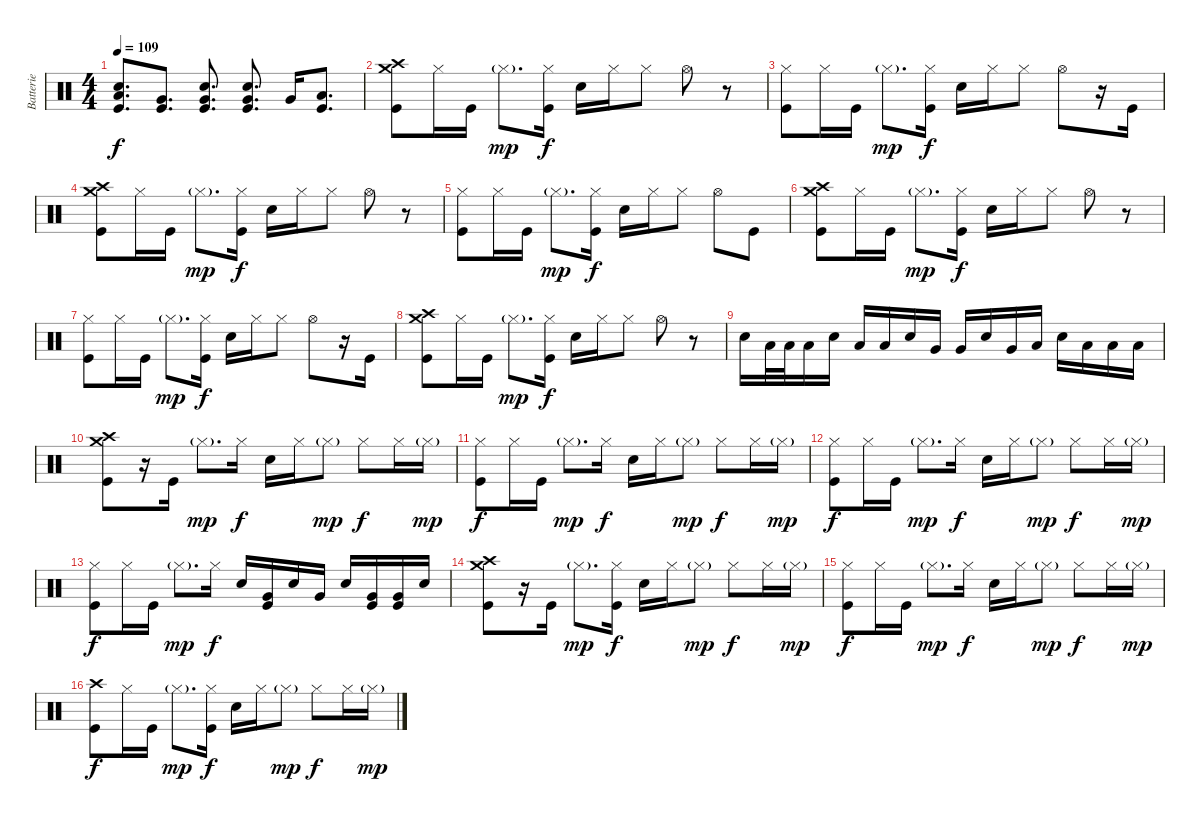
\track ("Batterie" "Batterie") {instrument percussion}
\staff {score}
\articulation defaults
\ts (4 4)
\tempo 109
\clef neutral
\ks c
("Electric Snare (hit)" "Low Tom (hit)" "Kick (hit)").8{d dy f} ("Very Low Tom (hit)" "Kick (hit)").8{d} ("Electric Snare (hit)" "Very Low Tom (hit)" "Kick (hit)").8{d} ("Electric Snare (hit)" "Very Low Tom (hit)" "Kick (hit)").8{d} "Very Low Tom (hit)".16 ("Low Floor Tom (hit)" "Kick (hit)").8{d} |
("Crash high (hit)" "Crash medium (hit)" "Kick (hit)").8 "Hi-Hat (closed)".16 "Kick (hit)".16 "Hi-Hat (closed)"{g}.8{d dy mp} ("Hi-Hat (closed)" "Kick (hit)").16{dy f} "Electric Snare (hit)".16 "Hi-Hat (closed)".16 "Hi-Hat (closed)".8 "Hi-Hat (open)".8 r.8 |
("Hi-Hat (closed)" "Kick (hit)").8 "Hi-Hat (closed)".16 "Kick (hit)".16 "Hi-Hat (closed)"{g}.8{d dy mp} ("Hi-Hat (closed)" "Kick (hit)").16{dy f} "Electric Snare (hit)".16 "Hi-Hat (closed)".16 "Hi-Hat (closed)".8 "Hi-Hat (open)".8 r.16 "Kick (hit)".16 |
("Crash high (hit)" "Crash medium (hit)" "Kick (hit)").8 "Hi-Hat (closed)".16 "Kick (hit)".16 "Hi-Hat (closed)"{g}.8{d dy mp} ("Hi-Hat (closed)" "Kick (hit)").16{dy f} "Electric Snare (hit)".16 "Hi-Hat (closed)".16 "Hi-Hat (closed)".8 "Hi-Hat (open)".8 r.8 |
("Hi-Hat (closed)" "Kick (hit)").8 "Hi-Hat (closed)".16 "Kick (hit)".16 "Hi-Hat (closed)"{g}.8{d dy mp} ("Hi-Hat (closed)" "Kick (hit)").16{dy f} "Electric Snare (hit)".16 "Hi-Hat (closed)".16 "Hi-Hat (closed)".8 "Hi-Hat (open)".8 "Kick (hit)".8 |
("Crash high (hit)" "Crash medium (hit)" "Kick (hit)").8 "Hi-Hat (closed)".16 "Kick (hit)".16 "Hi-Hat (closed)"{g}.8{d dy mp} ("Hi-Hat (closed)" "Kick (hit)").16{dy f} "Electric Snare (hit)".16 "Hi-Hat (closed)".16 "Hi-Hat (closed)".8 "Hi-Hat (open)".8 r.8 |
("Hi-Hat (closed)" "Kick (hit)").8 "Hi-Hat (closed)".16 "Kick (hit)".16 "Hi-Hat (closed)"{g}.8{d dy mp} ("Hi-Hat (closed)" "Kick (hit)").16{dy f} "Electric Snare (hit)".16 "Hi-Hat (closed)".16 "Hi-Hat (closed)".8 "Hi-Hat (open)".8 r.16 "Kick (hit)".16 |
("Crash high (hit)" "Crash medium (hit)" "Kick (hit)").8 "Hi-Hat (closed)".16 "Kick (hit)".16 "Hi-Hat (closed)"{g}.8{d dy mp} ("Hi-Hat (closed)" "Kick (hit)").16{dy f} "Electric Snare (hit)".16 "Hi-Hat (closed)".16 "Hi-Hat (closed)".8 "Hi-Hat (open)".8 r.8 |
"Electric Snare (hit)".16 "Low Tom (hit)".32 "Low Tom (hit)".32 "Low Tom (hit)".16 "Electric Snare (hit)".16 "Low Tom (hit)".16 "Low Tom (hit)".16 "Electric Snare (hit)".16 "Very Low Tom (hit)".16 "Very Low Tom (hit)".16 "Electric Snare (hit)".16 "Very Low Tom (hit)".16 "Low Floor Tom (hit)".16 "Electric Snare (hit)".16 "Low Floor Tom (hit)".16 "Low Floor Tom (hit)".16 "Low Floor Tom (hit)".16 |
("Crash high (hit)" "Crash medium (hit)" "Kick (hit)").8 r.16 "Kick (hit)".16 "Hi-Hat (closed)"{g}.8{d dy mp} "Hi-Hat (closed)".16{dy f} "Electric Snare (hit)".16 "Hi-Hat (closed)".16 "Hi-Hat (closed)"{g}.8{dy mp} "Hi-Hat (closed)".8{dy f} "Hi-Hat (closed)".16 "Hi-Hat (closed)"{g}.16{dy mp} |
("Hi-Hat (closed)" "Kick (hit)").8{dy f} "Hi-Hat (closed)".16 "Kick (hit)".16 "Hi-Hat (closed)"{g}.8{d dy mp} "Hi-Hat (closed)".16{dy f} "Electric Snare (hit)".16 "Hi-Hat (closed)".16 "Hi-Hat (closed)"{g}.8{dy mp} "Hi-Hat (closed)".8{dy f} "Hi-Hat (closed)".16 "Hi-Hat (closed)"{g}.16{dy mp} |
("Hi-Hat (closed)" "Kick (hit)").8{dy f} "Hi-Hat (closed)".16 "Kick (hit)".16 "Hi-Hat (closed)"{g}.8{d dy mp} "Hi-Hat (closed)".16{dy f} "Electric Snare (hit)".16 "Hi-Hat (closed)".16 "Hi-Hat (closed)"{g}.8{dy mp} "Hi-Hat (closed)".8{dy f} "Hi-Hat (closed)".16 "Hi-Hat (closed)"{g}.16{dy mp} |
("Hi-Hat (closed)" "Kick (hit)").8{dy f} "Hi-Hat (closed)".16 "Kick (hit)".16 "Hi-Hat (closed)"{g}.8{d dy mp} "Hi-Hat (closed)".16{dy f} "Electric Snare (hit)".16 ("Very Low Tom (hit)" "Kick (hit)").16 "Electric Snare (hit)".16 "Very Low Tom (hit)".16 "Electric Snare (hit)".16 ("Very Low Tom (hit)" "Kick (hit)").16 ("Very Low Tom (hit)" "Kick (hit)").16 "Electric Snare (hit)".16 |
("Crash high (hit)" "Crash medium (hit)" "Kick (hit)").8 r.16 "Kick (hit)".16 "Hi-Hat (closed)"{g}.8{d dy mp} ("Hi-Hat (closed)" "Kick (hit)").16{dy f} "Electric Snare (hit)".16 "Hi-Hat (closed)".16 "Hi-Hat (closed)"{g}.8{dy mp} "Hi-Hat (closed)".8{dy f} "Hi-Hat (closed)".16 "Hi-Hat (closed)"{g}.16{dy mp} |
("Hi-Hat (closed)" "Kick (hit)").8{dy f} "Hi-Hat (closed)".16 "Kick (hit)".16 "Hi-Hat (closed)"{g}.8{d dy mp} "Hi-Hat (closed)".16{dy f} "Electric Snare (hit)".16 "Hi-Hat (closed)".16 "Hi-Hat (closed)"{g}.8{dy mp} "Hi-Hat (closed)".8{dy f} "Hi-Hat (closed)".16 "Hi-Hat (closed)"{g}.16{dy mp} |
("Crash high (hit)" "Kick (hit)").8{dy f} "Hi-Hat (closed)".16 "Kick (hit)".16 "Hi-Hat (closed)"{g}.8{d dy mp} ("Hi-Hat (closed)" "Kick (hit)").16{dy f} "Electric Snare (hit)".16 "Hi-Hat (closed)".16 "Hi-Hat (closed)"{g}.8{dy mp} "Hi-Hat (closed)".8{dy f} "Hi-Hat (closed)".16 "Hi-Hat (closed)"{g}.16{dy mp}
